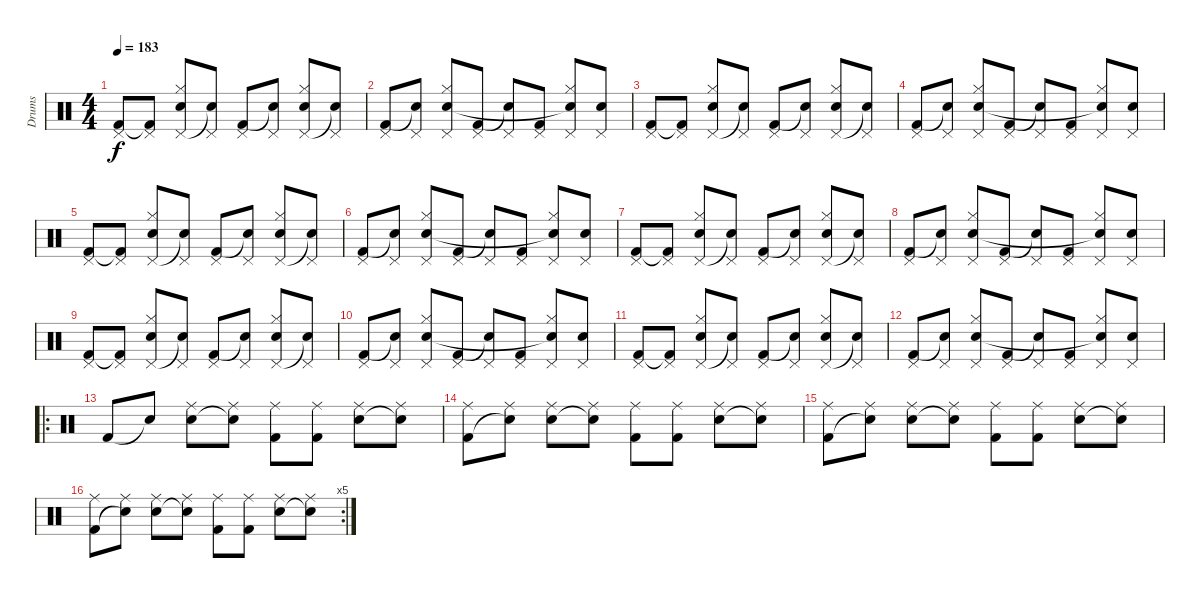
\track ("Drums" "Drums") {instrument percussion}
\staff {score}
\articulation defaults
\ts (4 4)
\tempo 183
\clef neutral
\ks c
("Pedal Hi-Hat (hit)" "Kick (hit) 2").8{dy f} ("Pedal Hi-Hat (hit)" "Kick (hit) 2"{t}).8 ("Hi-Hat (closed)" "Pedal Hi-Hat (hit)" "Snare (hit) 2").8 ("Pedal Hi-Hat (hit)" "Snare (hit)"{t}).8 ("Pedal Hi-Hat (hit)" "Kick (hit) 2").8 ("Pedal Hi-Hat (hit)" "Snare (hit)"{t}).8 ("Hi-Hat (closed)" "Pedal Hi-Hat (hit)" "Snare (hit) 2").8 ("Pedal Hi-Hat (hit)" "Snare (hit)"{t}).8 |
("Pedal Hi-Hat (hit)" "Kick (hit) 2").8 ("Pedal Hi-Hat (hit)" "Snare (hit)"{t}).8 ("Hi-Hat (closed)" "Pedal Hi-Hat (hit)" "Snare (hit) 2").8 ("Pedal Hi-Hat (hit)" "Kick (hit) 2").8 ("Pedal Hi-Hat (hit)" "Snare (hit)"{t}).8 ("Pedal Hi-Hat (hit)" "Kick (hit) 2").8 ("Hi-Hat (closed)" "Pedal Hi-Hat (hit)" "Snare (hit)"{t}).8 ("Pedal Hi-Hat (hit)" "Snare (hit) 2").8 |
("Pedal Hi-Hat (hit)" "Kick (hit) 2").8 ("Pedal Hi-Hat (hit)" "Kick (hit) 2"{t}).8 ("Hi-Hat (closed)" "Pedal Hi-Hat (hit)" "Snare (hit) 2").8 ("Pedal Hi-Hat (hit)" "Snare (hit)"{t}).8 ("Pedal Hi-Hat (hit)" "Kick (hit) 2").8 ("Pedal Hi-Hat (hit)" "Snare (hit)"{t}).8 ("Hi-Hat (closed)" "Pedal Hi-Hat (hit)" "Snare (hit) 2").8 ("Pedal Hi-Hat (hit)" "Snare (hit)"{t}).8 |
("Pedal Hi-Hat (hit)" "Kick (hit) 2").8 ("Pedal Hi-Hat (hit)" "Snare (hit)"{t}).8 ("Hi-Hat (closed)" "Pedal Hi-Hat (hit)" "Snare (hit) 2").8 ("Pedal Hi-Hat (hit)" "Kick (hit) 2").8 ("Pedal Hi-Hat (hit)" "Snare (hit)"{t}).8 ("Pedal Hi-Hat (hit)" "Kick (hit) 2").8 ("Hi-Hat (closed)" "Pedal Hi-Hat (hit)" "Snare (hit)"{t}).8 ("Pedal Hi-Hat (hit)" "Snare (hit) 2").8 |
("Pedal Hi-Hat (hit)" "Kick (hit) 2").8 ("Pedal Hi-Hat (hit)" "Kick (hit) 2"{t}).8 ("Hi-Hat (closed)" "Pedal Hi-Hat (hit)" "Snare (hit) 2").8 ("Pedal Hi-Hat (hit)" "Snare (hit)"{t}).8 ("Pedal Hi-Hat (hit)" "Kick (hit) 2").8 ("Pedal Hi-Hat (hit)" "Snare (hit)"{t}).8 ("Hi-Hat (closed)" "Pedal Hi-Hat (hit)" "Snare (hit) 2").8 ("Pedal Hi-Hat (hit)" "Snare (hit)"{t}).8 |
("Pedal Hi-Hat (hit)" "Kick (hit) 2").8 ("Pedal Hi-Hat (hit)" "Snare (hit)"{t}).8 ("Hi-Hat (closed)" "Pedal Hi-Hat (hit)" "Snare (hit) 2").8 ("Pedal Hi-Hat (hit)" "Kick (hit) 2").8 ("Pedal Hi-Hat (hit)" "Snare (hit)"{t}).8 ("Pedal Hi-Hat (hit)" "Kick (hit) 2").8 ("Hi-Hat (closed)" "Pedal Hi-Hat (hit)" "Snare (hit)"{t}).8 ("Pedal Hi-Hat (hit)" "Snare (hit) 2").8 |
("Pedal Hi-Hat (hit)" "Kick (hit) 2").8 ("Pedal Hi-Hat (hit)" "Kick (hit) 2"{t}).8 ("Hi-Hat (closed)" "Pedal Hi-Hat (hit)" "Snare (hit) 2").8 ("Pedal Hi-Hat (hit)" "Snare (hit)"{t}).8 ("Pedal Hi-Hat (hit)" "Kick (hit) 2").8 ("Pedal Hi-Hat (hit)" "Snare (hit)"{t}).8 ("Hi-Hat (closed)" "Pedal Hi-Hat (hit)" "Snare (hit) 2").8 ("Pedal Hi-Hat (hit)" "Snare (hit)"{t}).8 |
("Pedal Hi-Hat (hit)" "Kick (hit) 2").8 ("Pedal Hi-Hat (hit)" "Snare (hit)"{t}).8 ("Hi-Hat (closed)" "Pedal Hi-Hat (hit)" "Snare (hit) 2").8 ("Pedal Hi-Hat (hit)" "Kick (hit) 2").8 ("Pedal Hi-Hat (hit)" "Snare (hit)"{t}).8 ("Pedal Hi-Hat (hit)" "Kick (hit) 2").8 ("Hi-Hat (closed)" "Pedal Hi-Hat (hit)" "Snare (hit)"{t}).8 ("Pedal Hi-Hat (hit)" "Snare (hit) 2").8 |
("Pedal Hi-Hat (hit)" "Kick (hit) 2").8 ("Pedal Hi-Hat (hit)" "Kick (hit) 2"{t}).8 ("Hi-Hat (closed)" "Pedal Hi-Hat (hit)" "Snare (hit) 2").8 ("Pedal Hi-Hat (hit)" "Snare (hit)"{t}).8 ("Pedal Hi-Hat (hit)" "Kick (hit) 2").8 ("Pedal Hi-Hat (hit)" "Snare (hit)"{t}).8 ("Hi-Hat (closed)" "Pedal Hi-Hat (hit)" "Snare (hit) 2").8 ("Pedal Hi-Hat (hit)" "Snare (hit)"{t}).8 |
("Pedal Hi-Hat (hit)" "Kick (hit) 2").8 ("Pedal Hi-Hat (hit)" "Snare (hit)"{t}).8 ("Hi-Hat (closed)" "Pedal Hi-Hat (hit)" "Snare (hit) 2").8 ("Pedal Hi-Hat (hit)" "Kick (hit) 2").8 ("Pedal Hi-Hat (hit)" "Snare (hit)"{t}).8 ("Pedal Hi-Hat (hit)" "Kick (hit) 2").8 ("Hi-Hat (closed)" "Pedal Hi-Hat (hit)" "Snare (hit)"{t}).8 ("Pedal Hi-Hat (hit)" "Snare (hit) 2").8 |
("Pedal Hi-Hat (hit)" "Kick (hit) 2").8 ("Pedal Hi-Hat (hit)" "Kick (hit) 2"{t}).8 ("Hi-Hat (closed)" "Pedal Hi-Hat (hit)" "Snare (hit) 2").8 ("Pedal Hi-Hat (hit)" "Snare (hit)"{t}).8 ("Pedal Hi-Hat (hit)" "Kick (hit) 2").8 ("Pedal Hi-Hat (hit)" "Snare (hit)"{t}).8 ("Hi-Hat (closed)" "Pedal Hi-Hat (hit)" "Snare (hit) 2").8 ("Pedal Hi-Hat (hit)" "Snare (hit)"{t}).8 |
("Pedal Hi-Hat (hit)" "Kick (hit) 2").8 ("Pedal Hi-Hat (hit)" "Snare (hit)"{t}).8 ("Hi-Hat (closed)" "Pedal Hi-Hat (hit)" "Snare (hit) 2").8 ("Pedal Hi-Hat (hit)" "Kick (hit) 2").8 ("Pedal Hi-Hat (hit)" "Snare (hit)"{t}).8 ("Pedal Hi-Hat (hit)" "Kick (hit) 2").8 ("Hi-Hat (closed)" "Pedal Hi-Hat (hit)" "Snare (hit)"{t}).8 ("Pedal Hi-Hat (hit)" "Snare (hit) 2").8 |
\ro "Kick (hit) 2".8 "Snare (hit)"{t}.8
("Ride (middle)" "Snare (hit) 2").8 ("Ride (middle)" "Snare (hit)"{t}).8 ("Ride (middle)" "Kick (hit) 2").8 ("Ride (middle)" "Kick (hit) 2").8 ("Ride (middle)" "Snare (hit) 2").8 ("Ride (middle)" "Snare (hit) 2"{t}).8 |
("Ride (middle)" "Kick (hit) 2").8 ("Ride (middle)" "Snare (hit)"{t}).8 ("Ride (middle)" "Snare (hit) 2").8 ("Ride (middle)" "Snare (hit)"{t}).8 ("Ride (middle)" "Kick (hit) 2").8 ("Ride (middle)" "Kick (hit) 2").8 ("Ride (middle)" "Snare (hit) 2").8 ("Ride (middle)" "Snare (hit) 2"{t}).8 |
("Ride (middle)" "Kick (hit) 2").8 ("Ride (middle)" "Snare (hit)"{t}).8 ("Ride (middle)" "Snare (hit) 2").8 ("Ride (middle)" "Snare (hit)"{t}).8 ("Ride (middle)" "Kick (hit) 2").8 ("Ride (middle)" "Kick (hit) 2").8 ("Ride (middle)" "Snare (hit) 2").8 ("Ride (middle)" "Snare (hit) 2"{t}).8 |
\rc 5
("Ride (middle)" "Kick (hit) 2").8 ("Ride (middle)" "Snare (hit)"{t}).8 ("Ride (middle)" "Snare (hit) 2").8 ("Ride (middle)" "Snare (hit)"{t}).8 ("Ride (middle)" "Kick (hit) 2").8 ("Ride (middle)" "Kick (hit) 2").8 ("Ride (middle)" "Snare (hit) 2").8 ("Ride (middle)" "Snare (hit) 2"{t}).8
